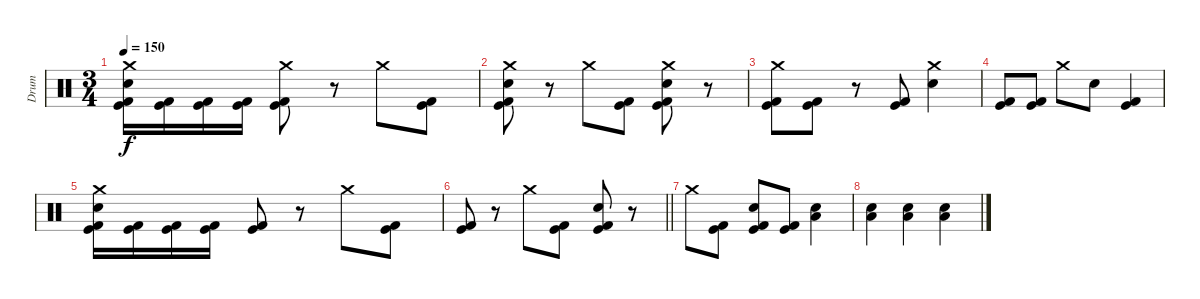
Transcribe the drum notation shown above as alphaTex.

\track ("Drum" "Drum") {instrument percussion}
\staff {score}
\articulation defaults
\ts (3 4)
\tempo 150
\clef neutral
\ks c
("Crash medium (hit)" "Electric Snare (hit)" "Kick (hit)" "Kick (hit) 2").16{dy f} ("Kick (hit)" "Kick (hit) 2").16 ("Kick (hit)" "Kick (hit) 2").16 ("Kick (hit)" "Kick (hit) 2").16 ("Crash medium (hit)" "Kick (hit)" "Kick (hit) 2").8 r.8 "Crash medium (hit)".8 ("Kick (hit)" "Kick (hit) 2").8 |
("Crash medium (hit)" "Electric Snare (hit)" "Kick (hit)" "Kick (hit) 2").8 r.8 "Crash medium (hit)".8 ("Kick (hit)" "Kick (hit) 2").8 ("Crash medium (hit)" "Electric Snare (hit)" "Kick (hit)" "Kick (hit) 2").8 r.8 |
("Crash medium (hit)" "Kick (hit)" "Kick (hit) 2").8 ("Kick (hit)" "Kick (hit) 2").8 r.8 ("Kick (hit)" "Kick (hit) 2").8 ("Crash medium (hit)" "Electric Snare (hit)").4 |
("Kick (hit)" "Kick (hit) 2").8 ("Kick (hit)" "Kick (hit) 2").8 "Crash medium (hit)".8 "Electric Snare (hit)".8 ("Kick (hit)" "Kick (hit) 2").4 |
("Crash medium (hit)" "Electric Snare (hit)" "Kick (hit)" "Kick (hit) 2").16 ("Kick (hit)" "Kick (hit) 2").16 ("Kick (hit)" "Kick (hit) 2").16 ("Kick (hit)" "Kick (hit) 2").16 ("Kick (hit)" "Kick (hit) 2").8 r.8 "Crash medium (hit)".8 ("Kick (hit)" "Kick (hit) 2").8 |
\barLineRight lightlight
("Kick (hit)" "Kick (hit) 2").8 r.8 "Crash medium (hit)".8 ("Kick (hit)" "Kick (hit) 2").8 ("Electric Snare (hit)" "Kick (hit)" "Kick (hit) 2").8 r.8 |
"Crash medium (hit)".8 ("Kick (hit)" "Kick (hit) 2").8 ("Electric Snare (hit)" "Kick (hit)" "Kick (hit) 2").8 ("Kick (hit)" "Kick (hit) 2").8 ("Low Floor Tom (hit)" "Electric Snare (hit)").4 |
("Low Floor Tom (hit)" "Electric Snare (hit)").4 ("Low Floor Tom (hit)" "Electric Snare (hit)").4 ("Low Floor Tom (hit)" "Electric Snare (hit)").4
